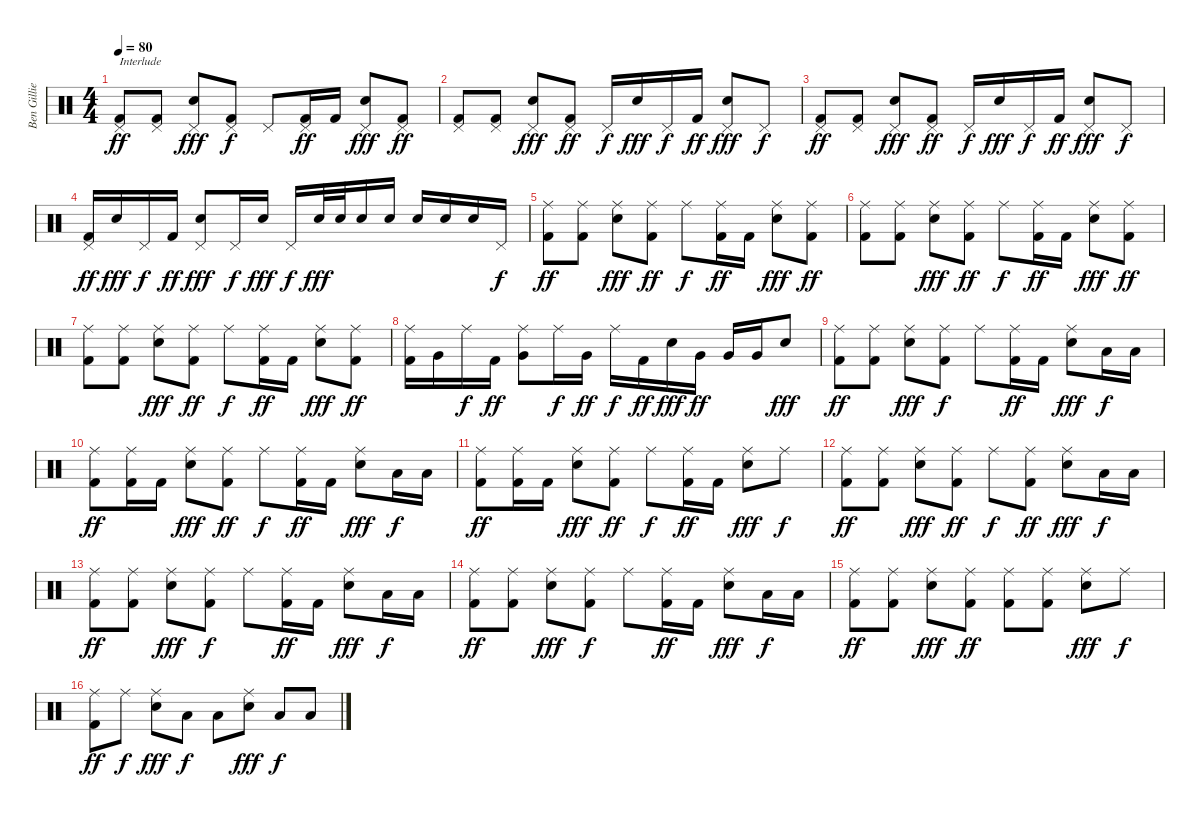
\track ("Ben Gillies" "Ben Gillie") {instrument percussion}
\staff {score}
\articulation defaults
\ts (4 4)
\tempo 80
\clef neutral
\ks c
("Pedal Hi-Hat (hit)" "Kick (hit) 2").8{txt "Interlude" dy ff} ("Pedal Hi-Hat (hit)" "Kick (hit) 2").8 ("Pedal Hi-Hat (hit)" "Electric Snare (hit)").8{dy fff} ("Pedal Hi-Hat (hit)" "Kick (hit) 2").8{dy f} "Pedal Hi-Hat (hit)".8 ("Pedal Hi-Hat (hit)" "Kick (hit) 2").16{dy ff} "Kick (hit) 2".16 ("Pedal Hi-Hat (hit)" "Electric Snare (hit)").8{dy fff} ("Pedal Hi-Hat (hit)" "Kick (hit) 2").8{dy ff} |
("Pedal Hi-Hat (hit)" "Kick (hit) 2").8 ("Pedal Hi-Hat (hit)" "Kick (hit) 2").8 ("Pedal Hi-Hat (hit)" "Electric Snare (hit)").8{dy fff} ("Pedal Hi-Hat (hit)" "Kick (hit) 2").8{dy ff} "Pedal Hi-Hat (hit)".16{dy f} "Electric Snare (hit)".16{dy fff} "Pedal Hi-Hat (hit)".16{dy f} "Kick (hit) 2".16{dy ff} ("Pedal Hi-Hat (hit)" "Electric Snare (hit)").8{dy fff} "Pedal Hi-Hat (hit)".8{dy f} |
("Pedal Hi-Hat (hit)" "Kick (hit) 2").8{dy ff} ("Pedal Hi-Hat (hit)" "Kick (hit) 2").8 ("Pedal Hi-Hat (hit)" "Electric Snare (hit)").8{dy fff} ("Pedal Hi-Hat (hit)" "Kick (hit) 2").8{dy ff} "Pedal Hi-Hat (hit)".16{dy f} "Electric Snare (hit)".16{dy fff} "Pedal Hi-Hat (hit)".16{dy f} "Kick (hit) 2".16{dy ff} ("Pedal Hi-Hat (hit)" "Electric Snare (hit)").8{dy fff} "Pedal Hi-Hat (hit)".8{dy f} |
("Pedal Hi-Hat (hit)" "Kick (hit) 2").16{dy ff} "Electric Snare (hit)".16{dy fff} "Pedal Hi-Hat (hit)".16{dy f} "Kick (hit) 2".16{dy ff} ("Pedal Hi-Hat (hit)" "Electric Snare (hit)").8{dy fff} "Pedal Hi-Hat (hit)".16{dy f} "Electric Snare (hit)".16{dy fff} "Pedal Hi-Hat (hit)".16{dy f} "Electric Snare (hit)".32{dy fff} "Electric Snare (hit)".32 "Electric Snare (hit)".16 "Electric Snare (hit)".16 "Electric Snare (hit)".16 "Electric Snare (hit)".16 "Electric Snare (hit)".16 "Pedal Hi-Hat (hit)".16{dy f} |
("Ride (middle)" "Kick (hit) 2").8{dy ff} ("Ride (middle)" "Kick (hit) 2").8 ("Ride (middle)" "Electric Snare (hit)").8{dy fff} ("Ride (middle)" "Kick (hit) 2").8{dy ff} "Ride (middle)".8{dy f} ("Ride (middle)" "Kick (hit) 2").16{dy ff} "Kick (hit) 2".16 ("Ride (middle)" "Electric Snare (hit)").8{dy fff} ("Ride (middle)" "Kick (hit) 2").8{dy ff} |
("Ride (middle)" "Kick (hit) 2").8 ("Ride (middle)" "Kick (hit) 2").8 ("Ride (middle)" "Electric Snare (hit)").8{dy fff} ("Ride (middle)" "Kick (hit) 2").8{dy ff} "Ride (middle)".8{dy f} ("Ride (middle)" "Kick (hit) 2").16{dy ff} "Kick (hit) 2".16 ("Ride (middle)" "Electric Snare (hit)").8{dy fff} ("Ride (middle)" "Kick (hit) 2").8{dy ff} |
("Ride (middle)" "Kick (hit) 2").8 ("Ride (middle)" "Kick (hit) 2").8 ("Ride (middle)" "Electric Snare (hit)").8{dy fff} ("Ride (middle)" "Kick (hit) 2").8{dy ff} "Ride (middle)".8{dy f} ("Ride (middle)" "Kick (hit) 2").16{dy ff} "Kick (hit) 2".16 ("Ride (middle)" "Electric Snare (hit)").8{dy fff} ("Ride (middle)" "Kick (hit) 2").8{dy ff} |
("Ride (middle)" "Kick (hit) 2").16 "Very Low Tom (hit)".16 "Ride (middle)".16{dy f} "Kick (hit) 2".16{dy ff} ("Very Low Tom (hit)" "Ride (middle)").8 "Ride (middle)".16{dy f} "Very Low Tom (hit)".16{dy ff} "Ride (middle)".16{dy f} "Kick (hit) 2".16{dy ff} "Electric Snare (hit)".16{dy fff} "Very Low Tom (hit)".16{dy ff} "Very Low Tom (hit)".16 "Very Low Tom (hit)".16 "Electric Snare (hit)".8{dy fff} |
("Ride (middle)" "Kick (hit) 2").8{dy ff} ("Ride (middle)" "Kick (hit) 2").8 ("Ride (middle)" "Electric Snare (hit)").8{dy fff} ("Ride (middle)" "Kick (hit) 2").8{dy f} "Ride (middle)".8 ("Ride (middle)" "Kick (hit) 2").16{dy ff} "Kick (hit) 2".16 ("Ride (middle)" "Electric Snare (hit)").8{dy fff} "Low Tom (hit)".16{dy f} "Low Floor Tom (hit)".16 |
("Ride (middle)" "Kick (hit) 2").8{dy ff} ("Ride (middle)" "Kick (hit) 2").16 "Kick (hit) 2".16 ("Ride (middle)" "Electric Snare (hit)").8{dy fff} ("Ride (middle)" "Kick (hit) 2").8{dy ff} "Ride (middle)".8{dy f} ("Ride (middle)" "Kick (hit) 2").16{dy ff} "Kick (hit) 2".16 ("Ride (middle)" "Electric Snare (hit)").8{dy fff} "Low Tom (hit)".16{dy f} "Low Floor Tom (hit)".16 |
("Ride (middle)" "Kick (hit) 2").8{dy ff} ("Ride (middle)" "Kick (hit) 2").16 "Kick (hit) 2".16 ("Ride (middle)" "Electric Snare (hit)").8{dy fff} ("Ride (middle)" "Kick (hit) 2").8{dy ff} "Ride (middle)".8{dy f} ("Ride (middle)" "Kick (hit) 2").16{dy ff} "Kick (hit) 2".16 ("Ride (middle)" "Electric Snare (hit)").8{dy fff} "Ride (middle)".8{dy f} |
("Ride (middle)" "Kick (hit) 2").8{dy ff} ("Ride (middle)" "Kick (hit) 2").8 ("Ride (middle)" "Electric Snare (hit)").8{dy fff} ("Ride (middle)" "Kick (hit) 2").8{dy ff} "Ride (middle)".8{dy f} ("Ride (middle)" "Kick (hit) 2").8{dy ff} ("Ride (middle)" "Electric Snare (hit)").8{dy fff} "Low Tom (hit)".16{dy f} "Low Floor Tom (hit)".16 |
("Ride (middle)" "Kick (hit) 2").8{dy ff} ("Ride (middle)" "Kick (hit) 2").8 ("Ride (middle)" "Electric Snare (hit)").8{dy fff} ("Ride (middle)" "Kick (hit) 2").8{dy f} "Ride (middle)".8 ("Ride (middle)" "Kick (hit) 2").16{dy ff} "Kick (hit) 2".16 ("Ride (middle)" "Electric Snare (hit)").8{dy fff} "Low Tom (hit)".16{dy f} "Low Floor Tom (hit)".16 |
("Ride (middle)" "Kick (hit) 2").8{dy ff} ("Ride (middle)" "Kick (hit) 2").8 ("Ride (middle)" "Electric Snare (hit)").8{dy fff} ("Ride (middle)" "Kick (hit) 2").8{dy f} "Ride (middle)".8 ("Ride (middle)" "Kick (hit) 2").16{dy ff} "Kick (hit) 2".16 ("Ride (middle)" "Electric Snare (hit)").8{dy fff} "Low Tom (hit)".16{dy f} "Low Floor Tom (hit)".16 |
("Ride (middle)" "Kick (hit) 2").8{dy ff} ("Ride (middle)" "Kick (hit) 2").8 ("Ride (middle)" "Electric Snare (hit)").8{dy fff} ("Ride (middle)" "Kick (hit) 2").8{dy ff} ("Ride (middle)" "Kick (hit) 2").8 ("Ride (middle)" "Kick (hit) 2").8 ("Ride (middle)" "Electric Snare (hit)").8{dy fff} "Ride (middle)".8{dy f} |
("Ride (middle)" "Kick (hit) 2").8{dy ff} "Ride (middle)".8{dy f} ("Ride (middle)" "Electric Snare (hit)").8{dy fff} "Low Tom (hit)".8{dy f} "Low Floor Tom (hit)".8 ("Ride (middle)" "Electric Snare (hit)").8{dy fff} "Low Tom (hit)".8{dy f} "Low Floor Tom (hit)".8
